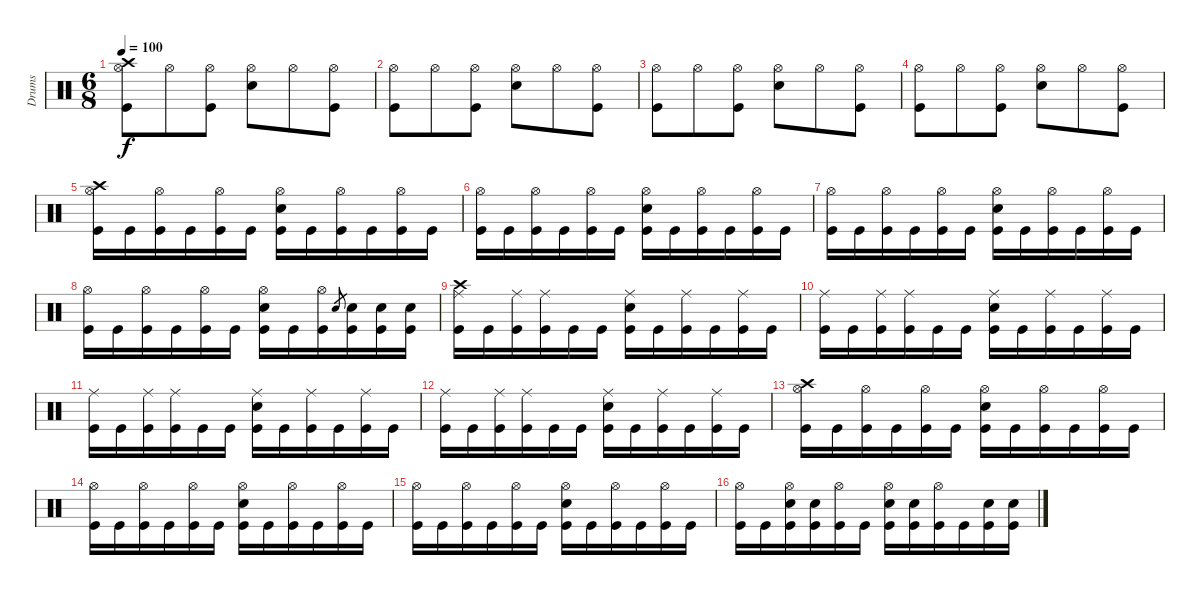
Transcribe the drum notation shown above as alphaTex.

\track ("Drums" "Drums") {instrument percussion}
\staff {score}
\articulation defaults
\ts (6 8)
\tempo 100
\clef neutral
\ks c
("Crash high (hit)" "Hi-Hat (open)" "Kick (hit)").8{dy f} "Hi-Hat (open)".8 ("Hi-Hat (open)" "Kick (hit)").8 ("Hi-Hat (open)" "Electric Snare (hit)").8 "Hi-Hat (open)".8 ("Hi-Hat (open)" "Kick (hit)").8 |
("Hi-Hat (open)" "Kick (hit)").8 "Hi-Hat (open)".8 ("Hi-Hat (open)" "Kick (hit)").8 ("Hi-Hat (open)" "Electric Snare (hit)").8 "Hi-Hat (open)".8 ("Hi-Hat (open)" "Kick (hit)").8 |
("Hi-Hat (open)" "Kick (hit)").8 "Hi-Hat (open)".8 ("Hi-Hat (open)" "Kick (hit)").8 ("Hi-Hat (open)" "Electric Snare (hit)").8 "Hi-Hat (open)".8 ("Hi-Hat (open)" "Kick (hit)").8 |
("Hi-Hat (open)" "Kick (hit)").8 "Hi-Hat (open)".8 ("Hi-Hat (open)" "Kick (hit)").8 ("Hi-Hat (open)" "Electric Snare (hit)").8 "Hi-Hat (open)".8 ("Hi-Hat (open)" "Kick (hit)").8 |
("Crash high (hit)" "Hi-Hat (open)" "Kick (hit)").16 "Kick (hit)".16 ("Hi-Hat (open)" "Kick (hit)").16 "Kick (hit)".16 ("Hi-Hat (open)" "Kick (hit)").16 "Kick (hit)".16 ("Hi-Hat (open)" "Electric Snare (hit)" "Kick (hit)").16 "Kick (hit)".16 ("Hi-Hat (open)" "Kick (hit)").16 "Kick (hit)".16 ("Hi-Hat (open)" "Kick (hit)").16 "Kick (hit)".16 |
("Hi-Hat (open)" "Kick (hit)").16 "Kick (hit)".16 ("Hi-Hat (open)" "Kick (hit)").16 "Kick (hit)".16 ("Hi-Hat (open)" "Kick (hit)").16 "Kick (hit)".16 ("Hi-Hat (open)" "Electric Snare (hit)" "Kick (hit)").16 "Kick (hit)".16 ("Hi-Hat (open)" "Kick (hit)").16 "Kick (hit)".16 ("Hi-Hat (open)" "Kick (hit)").16 "Kick (hit)".16 |
("Hi-Hat (open)" "Kick (hit)").16 "Kick (hit)".16 ("Hi-Hat (open)" "Kick (hit)").16 "Kick (hit)".16 ("Hi-Hat (open)" "Kick (hit)").16 "Kick (hit)".16 ("Hi-Hat (open)" "Electric Snare (hit)" "Kick (hit)").16 "Kick (hit)".16 ("Hi-Hat (open)" "Kick (hit)").16 "Kick (hit)".16 ("Hi-Hat (open)" "Kick (hit)").16 "Kick (hit)".16 |
("Hi-Hat (open)" "Kick (hit)").16 "Kick (hit)".16 ("Hi-Hat (open)" "Kick (hit)").16 "Kick (hit)".16 ("Hi-Hat (open)" "Kick (hit)").16 "Kick (hit)".16 ("Hi-Hat (open)" "Electric Snare (hit)" "Kick (hit)").16 "Kick (hit)".16 ("Hi-Hat (open)" "Kick (hit)").16 "Electric Snare (hit)".8{gr} ("Electric Snare (hit)" "Kick (hit)").16 ("Electric Snare (hit)" "Kick (hit)").16 ("Electric Snare (hit)" "Kick (hit)").16 |
("Crash high (hit)" "Ride (middle)" "Kick (hit)").16 "Kick (hit)".16 ("Ride (middle)" "Kick (hit)").16 ("Ride (middle)" "Kick (hit)").16 "Kick (hit)".16 "Kick (hit)".16 ("Ride (middle)" "Electric Snare (hit)" "Kick (hit)").16 "Kick (hit)".16 ("Ride (middle)" "Kick (hit)").16 "Kick (hit)".16 ("Ride (middle)" "Kick (hit)").16 "Kick (hit)".16 |
("Ride (middle)" "Kick (hit)").16 "Kick (hit)".16 ("Ride (middle)" "Kick (hit)").16 ("Ride (middle)" "Kick (hit)").16 "Kick (hit)".16 "Kick (hit)".16 ("Ride (middle)" "Electric Snare (hit)" "Kick (hit)").16 "Kick (hit)".16 ("Ride (middle)" "Kick (hit)").16 "Kick (hit)".16 ("Ride (middle)" "Kick (hit)").16 "Kick (hit)".16 |
("Ride (middle)" "Kick (hit)").16 "Kick (hit)".16 ("Ride (middle)" "Kick (hit)").16 ("Ride (middle)" "Kick (hit)").16 "Kick (hit)".16 "Kick (hit)".16 ("Ride (middle)" "Electric Snare (hit)" "Kick (hit)").16 "Kick (hit)".16 ("Ride (middle)" "Kick (hit)").16 "Kick (hit)".16 ("Ride (middle)" "Kick (hit)").16 "Kick (hit)".16 |
("Ride (middle)" "Kick (hit)").16 "Kick (hit)".16 ("Ride (middle)" "Kick (hit)").16 ("Ride (middle)" "Kick (hit)").16 "Kick (hit)".16 "Kick (hit)".16 ("Ride (middle)" "Electric Snare (hit)" "Kick (hit)").16 "Kick (hit)".16 ("Ride (middle)" "Kick (hit)").16 "Kick (hit)".16 ("Ride (middle)" "Kick (hit)").16 "Kick (hit)".16 |
("Crash high (hit)" "Hi-Hat (open)" "Kick (hit)").16 "Kick (hit)".16 ("Hi-Hat (open)" "Kick (hit)").16 "Kick (hit)".16 ("Hi-Hat (open)" "Kick (hit)").16 "Kick (hit)".16 ("Hi-Hat (open)" "Electric Snare (hit)" "Kick (hit)").16 "Kick (hit)".16 ("Hi-Hat (open)" "Kick (hit)").16 "Kick (hit)".16 ("Hi-Hat (open)" "Kick (hit)").16 "Kick (hit)".16 |
("Hi-Hat (open)" "Kick (hit)").16 "Kick (hit)".16 ("Hi-Hat (open)" "Kick (hit)").16 "Kick (hit)".16 ("Hi-Hat (open)" "Kick (hit)").16 "Kick (hit)".16 ("Hi-Hat (open)" "Electric Snare (hit)" "Kick (hit)").16 "Kick (hit)".16 ("Hi-Hat (open)" "Kick (hit)").16 "Kick (hit)".16 ("Hi-Hat (open)" "Kick (hit)").16 "Kick (hit)".16 |
("Hi-Hat (open)" "Kick (hit)").16 "Kick (hit)".16 ("Hi-Hat (open)" "Kick (hit)").16 "Kick (hit)".16 ("Hi-Hat (open)" "Kick (hit)").16 "Kick (hit)".16 ("Hi-Hat (open)" "Electric Snare (hit)" "Kick (hit)").16 "Kick (hit)".16 ("Hi-Hat (open)" "Kick (hit)").16 "Kick (hit)".16 ("Hi-Hat (open)" "Kick (hit)").16 "Kick (hit)".16 |
("Hi-Hat (open)" "Kick (hit)").16 "Kick (hit)".16 ("Hi-Hat (open)" "Electric Snare (hit)" "Kick (hit)").16 ("Electric Snare (hit)" "Kick (hit)").16 ("Hi-Hat (open)" "Kick (hit)").16 "Kick (hit)".16 ("Hi-Hat (open)" "Electric Snare (hit)" "Kick (hit)").16 ("Electric Snare (hit)" "Kick (hit)").16 ("Hi-Hat (open)" "Kick (hit)").16 "Kick (hit)".16 ("Electric Snare (hit)" "Kick (hit)").16 ("Electric Snare (hit)" "Kick (hit)").16
